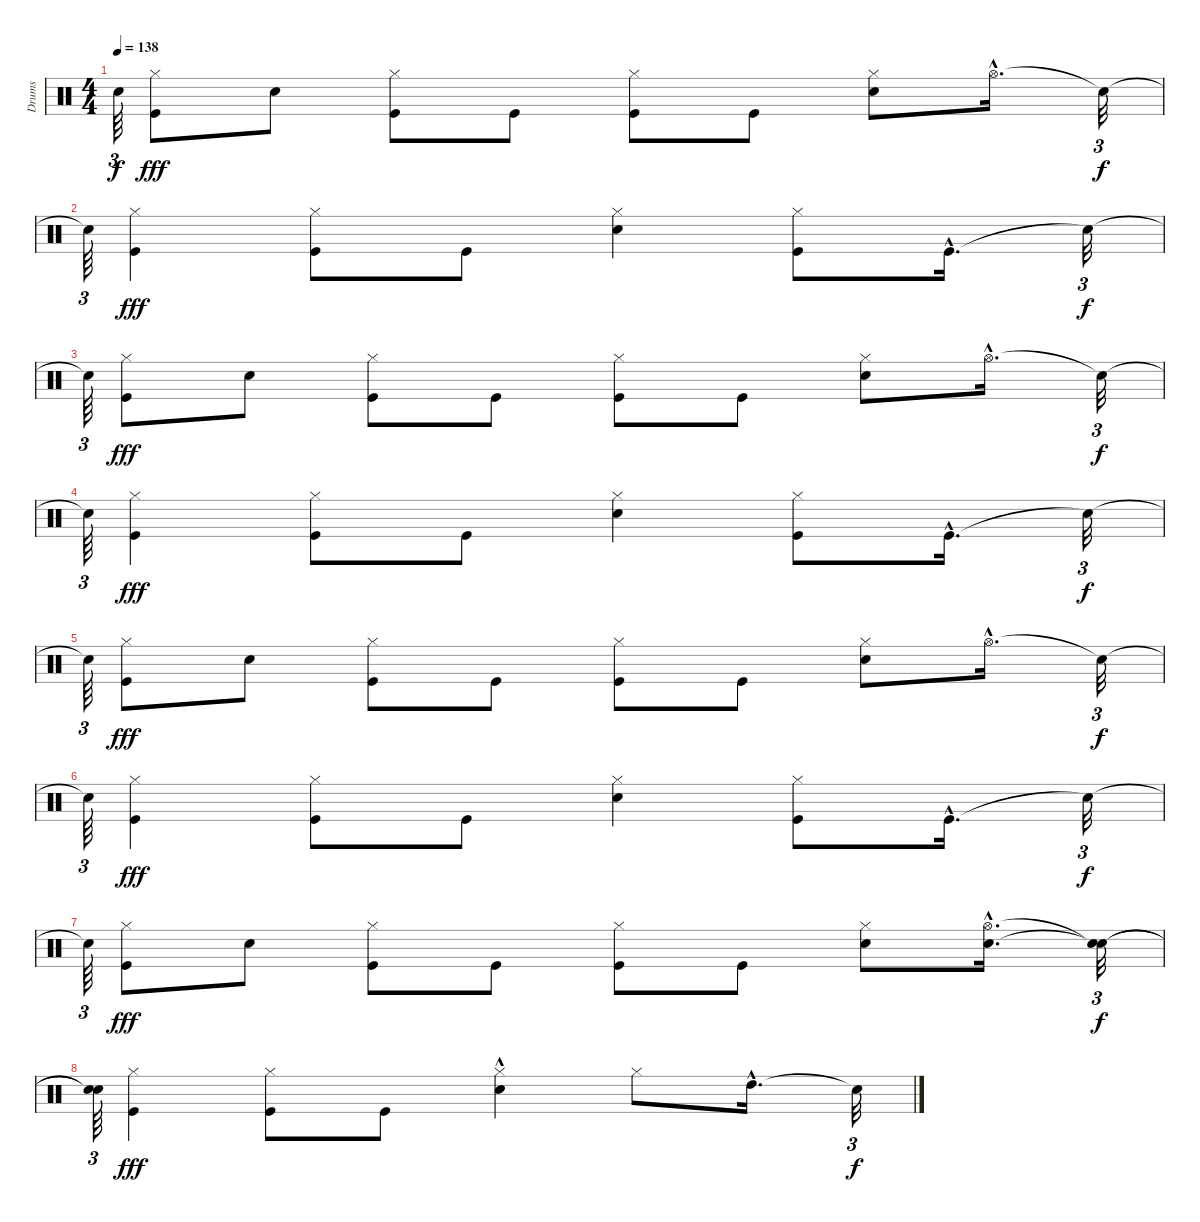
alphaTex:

\track ("Drums" "Drums") {instrument percussion}
\staff {score}
\articulation defaults
\ts (4 4)
\tempo 138
\clef neutral
\ks c "Snare (hit)"{t}.64{tu (3 2) dy f}
("Kick (hit)" "Hi-Hat (closed)").8{dy fff} "Snare (hit) 2".8 ("Kick (hit)" "Hi-Hat (closed)").8 "Kick (hit)".8 ("Kick (hit)" "Hi-Hat (closed)").8 "Kick (hit)".8 ("Snare (hit) 2" "Hi-Hat (closed)").8 "Hi-Hat (open)"{hac}.16{d} "Snare (hit)"{t}.32{tu (3 2) dy f} |
"Snare (hit)"{t}.64{tu (3 2)} ("Kick (hit)" "Hi-Hat (closed)").4{dy fff} ("Kick (hit)" "Hi-Hat (closed)").8 "Kick (hit)".8 ("Snare (hit) 2" "Hi-Hat (closed)").4 ("Kick (hit)" "Hi-Hat (closed)").8 "Kick (hit)"{hac}.16{d} "Snare (hit)"{t}.32{tu (3 2) dy f} |
"Snare (hit)"{t}.64{tu (3 2)} ("Kick (hit)" "Hi-Hat (closed)").8{dy fff} "Snare (hit) 2".8 ("Kick (hit)" "Hi-Hat (closed)").8 "Kick (hit)".8 ("Kick (hit)" "Hi-Hat (closed)").8 "Kick (hit)".8 ("Snare (hit) 2" "Hi-Hat (closed)").8 "Hi-Hat (open)"{hac}.16{d} "Snare (hit)"{t}.32{tu (3 2) dy f} |
"Snare (hit)"{t}.64{tu (3 2)} ("Kick (hit)" "Hi-Hat (closed)").4{dy fff} ("Kick (hit)" "Hi-Hat (closed)").8 "Kick (hit)".8 ("Snare (hit) 2" "Hi-Hat (closed)").4 ("Kick (hit)" "Hi-Hat (closed)").8 "Kick (hit)"{hac}.16{d} "Snare (hit)"{t}.32{tu (3 2) dy f} |
"Snare (hit)"{t}.64{tu (3 2)} ("Kick (hit)" "Hi-Hat (closed)").8{dy fff} "Snare (hit) 2".8 ("Kick (hit)" "Hi-Hat (closed)").8 "Kick (hit)".8 ("Kick (hit)" "Hi-Hat (closed)").8 "Kick (hit)".8 ("Snare (hit) 2" "Hi-Hat (closed)").8 "Hi-Hat (open)"{hac}.16{d} "Snare (hit)"{t}.32{tu (3 2) dy f} |
"Snare (hit)"{t}.64{tu (3 2)} ("Kick (hit)" "Hi-Hat (closed)").4{dy fff} ("Kick (hit)" "Hi-Hat (closed)").8 "Kick (hit)".8 ("Snare (hit) 2" "Hi-Hat (closed)").4 ("Kick (hit)" "Hi-Hat (closed)").8 "Kick (hit)"{hac}.16{d} "Snare (hit)"{t}.32{tu (3 2) dy f} |
"Snare (hit)"{t}.64{tu (3 2)} ("Kick (hit)" "Hi-Hat (closed)").8{dy fff} "Snare (hit) 2".8 ("Kick (hit)" "Hi-Hat (closed)").8 "Kick (hit)".8 ("Kick (hit)" "Hi-Hat (closed)").8 "Kick (hit)".8 ("Snare (hit) 2" "Hi-Hat (closed)").8 ("Snare (hit) 2"{hac} "Hi-Hat (open)"{hac}).16{d} ("Snare (hit)"{t} "Snare (hit)"{t}).32{tu (3 2) dy f} |
("Snare (hit)"{t} "Snare (hit)"{t}).64{tu (3 2)} ("Kick (hit)" "Hi-Hat (closed)").4{dy fff} ("Kick (hit)" "Hi-Hat (closed)").8 "Kick (hit)".8 ("Snare (hit) 2"{hac} "Hi-Hat (closed)").4 "Hi-Hat (closed)".8 "High Tom (hit)"{hac}.16{d} "Snare (hit)"{t}.32{tu (3 2) dy f}
